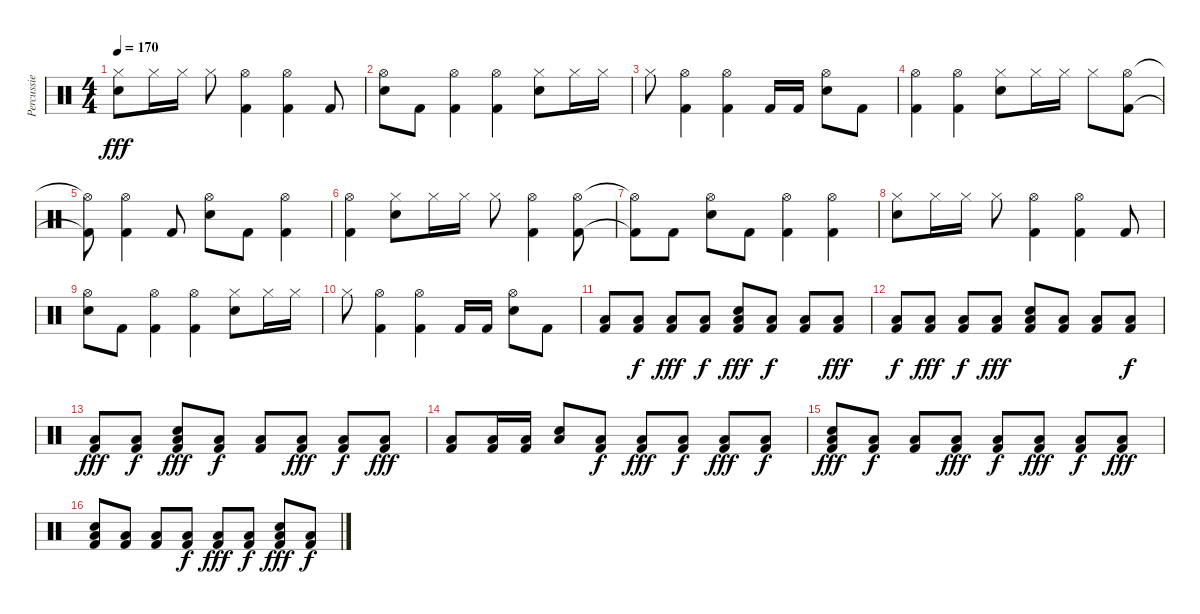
\track ("Percussie" "Percussie") {instrument percussion}
\staff {score}
\articulation defaults
\ts (4 4)
\tempo 170
\clef neutral
\ks c
("Hi-Hat (closed)" "Electric Snare (hit)").8{dy fff} "Hi-Hat (closed)".16 "Hi-Hat (closed)".16 "Hi-Hat (closed)".8 ("Hi-Hat (open)" "Kick (hit) 2").4 ("Hi-Hat (open)" "Kick (hit) 2").4 "Kick (hit) 2".8 |
("Hi-Hat (open)" "Electric Snare (hit)").8 "Kick (hit) 2".8 ("Hi-Hat (open)" "Kick (hit) 2").4 ("Hi-Hat (open)" "Kick (hit) 2").4 ("Hi-Hat (closed)" "Electric Snare (hit)").8 "Hi-Hat (closed)".16 "Hi-Hat (closed)".16 |
"Hi-Hat (closed)".8 ("Hi-Hat (open)" "Kick (hit) 2").4 ("Hi-Hat (open)" "Kick (hit) 2").4 "Kick (hit) 2".16 "Kick (hit) 2".16 ("Hi-Hat (open)" "Electric Snare (hit)").8 "Kick (hit) 2".8 |
("Hi-Hat (open)" "Kick (hit) 2").4 ("Hi-Hat (open)" "Kick (hit) 2").4 ("Hi-Hat (closed)" "Electric Snare (hit)").8 "Hi-Hat (closed)".16 "Hi-Hat (closed)".16 "Hi-Hat (closed)".8 ("Hi-Hat (open)" "Kick (hit) 2").8 |
("Hi-Hat (open)"{t} "Kick (hit) 2"{t}).8 ("Hi-Hat (open)" "Kick (hit) 2").4 "Kick (hit) 2".8 ("Hi-Hat (open)" "Electric Snare (hit)").8 "Kick (hit) 2".8 ("Hi-Hat (open)" "Kick (hit) 2").4 |
("Hi-Hat (open)" "Kick (hit) 2").4 ("Hi-Hat (closed)" "Electric Snare (hit)").8 "Hi-Hat (closed)".16 "Hi-Hat (closed)".16 "Hi-Hat (closed)".8 ("Hi-Hat (open)" "Kick (hit) 2").4 ("Hi-Hat (open)" "Kick (hit) 2").8 |
("Hi-Hat (open)"{t} "Kick (hit) 2"{t}).8 "Kick (hit) 2".8 ("Hi-Hat (open)" "Electric Snare (hit)").8 "Kick (hit) 2".8 ("Hi-Hat (open)" "Kick (hit) 2").4 ("Hi-Hat (open)" "Kick (hit) 2").4 |
("Hi-Hat (closed)" "Electric Snare (hit)").8 "Hi-Hat (closed)".16 "Hi-Hat (closed)".16 "Hi-Hat (closed)".8 ("Hi-Hat (open)" "Kick (hit) 2").4 ("Hi-Hat (open)" "Kick (hit) 2").4 "Kick (hit) 2".8 |
("Hi-Hat (open)" "Electric Snare (hit)").8 "Kick (hit) 2".8 ("Hi-Hat (open)" "Kick (hit) 2").4 ("Hi-Hat (open)" "Kick (hit) 2").4 ("Hi-Hat (closed)" "Electric Snare (hit)").8 "Hi-Hat (closed)".16 "Hi-Hat (closed)".16 |
"Hi-Hat (closed)".8 ("Hi-Hat (open)" "Kick (hit) 2").4 ("Hi-Hat (open)" "Kick (hit) 2").4 "Kick (hit) 2".16 "Kick (hit) 2".16 ("Hi-Hat (open)" "Electric Snare (hit)").8 "Kick (hit) 2".8 |
("Low Floor Tom (hit)" "Kick (hit) 2").8 ("Low Floor Tom (hit)" "Kick (hit) 2").8{dy f} ("Low Floor Tom (hit)" "Kick (hit) 2").8{dy fff} ("Low Floor Tom (hit)" "Kick (hit) 2").8{dy f} ("Electric Snare (hit)" "Low Floor Tom (hit)" "Kick (hit) 2").8{dy fff} ("Low Floor Tom (hit)" "Kick (hit) 2").8{dy f} ("Low Floor Tom (hit)" "Kick (hit) 2").8 ("Low Floor Tom (hit)" "Kick (hit) 2").8{dy fff} |
("Low Floor Tom (hit)" "Kick (hit) 2").8{dy f} ("Low Floor Tom (hit)" "Kick (hit) 2").8{dy fff} ("Low Floor Tom (hit)" "Kick (hit) 2").8{dy f} ("Low Floor Tom (hit)" "Kick (hit) 2").8{dy fff} ("Electric Snare (hit)" "Low Floor Tom (hit)" "Kick (hit) 2").8 ("Low Floor Tom (hit)" "Kick (hit) 2").8 ("Low Floor Tom (hit)" "Kick (hit) 2").8 ("Low Floor Tom (hit)" "Kick (hit) 2").8{dy f} |
("Low Floor Tom (hit)" "Kick (hit) 2").8{dy fff} ("Low Floor Tom (hit)" "Kick (hit) 2").8{dy f} ("Electric Snare (hit)" "Low Floor Tom (hit)" "Kick (hit) 2").8{dy fff} ("Low Floor Tom (hit)" "Kick (hit) 2").8{dy f} ("Low Floor Tom (hit)" "Kick (hit) 2").8 ("Low Floor Tom (hit)" "Kick (hit) 2").8{dy fff} ("Low Floor Tom (hit)" "Kick (hit) 2").8{dy f} ("Low Floor Tom (hit)" "Kick (hit) 2").8{dy fff} |
("Low Floor Tom (hit)" "Kick (hit) 2").8 ("Low Floor Tom (hit)" "Kick (hit) 2").16 ("Low Floor Tom (hit)" "Kick (hit) 2").16 ("Electric Snare (hit)" "Low Floor Tom (hit)").8 ("Low Floor Tom (hit)" "Kick (hit) 2").8{dy f} ("Low Floor Tom (hit)" "Kick (hit) 2").8{dy fff} ("Low Floor Tom (hit)" "Kick (hit) 2").8{dy f} ("Low Floor Tom (hit)" "Kick (hit) 2").8{dy fff} ("Low Floor Tom (hit)" "Kick (hit) 2").8{dy f} |
("Electric Snare (hit)" "Low Floor Tom (hit)" "Kick (hit) 2").8{dy fff} ("Low Floor Tom (hit)" "Kick (hit) 2").8{dy f} ("Low Floor Tom (hit)" "Kick (hit) 2").8 ("Low Floor Tom (hit)" "Kick (hit) 2").8{dy fff} ("Low Floor Tom (hit)" "Kick (hit) 2").8{dy f} ("Low Floor Tom (hit)" "Kick (hit) 2").8{dy fff} ("Low Floor Tom (hit)" "Kick (hit) 2").8{dy f} ("Low Floor Tom (hit)" "Kick (hit) 2").8{dy fff} |
("Electric Snare (hit)" "Low Floor Tom (hit)" "Kick (hit) 2").8 ("Low Floor Tom (hit)" "Kick (hit) 2").8 ("Low Floor Tom (hit)" "Kick (hit) 2").8 ("Low Floor Tom (hit)" "Kick (hit) 2").8{dy f} ("Low Floor Tom (hit)" "Kick (hit) 2").8{dy fff} ("Low Floor Tom (hit)" "Kick (hit) 2").8{dy f} ("Electric Snare (hit)" "Low Floor Tom (hit)" "Kick (hit) 2").8{dy fff} ("Low Floor Tom (hit)" "Kick (hit) 2").8{dy f}
